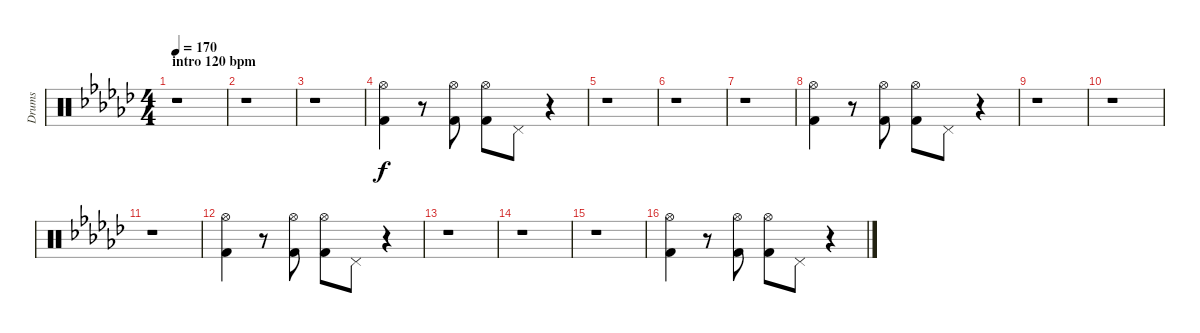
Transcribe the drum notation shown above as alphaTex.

\track ("Drums" "Drums") {instrument percussion}
\staff {score}
\articulation defaults
\ts (4 4)
\section ("" "intro 120 bpm")
\tempo 170
\tempo 120
\tempo 170
\clef neutral
\ks ebminor
r.1{dy f} |
r.1 |
r.1 |
("Hi-Hat (open)" "Kick (hit) 2").4 r.8 ("Hi-Hat (open)" "Kick (hit) 2").8 ("Hi-Hat (open)" "Kick (hit) 2").8 "Pedal Hi-Hat (hit)".8 r.4 |
r.1 |
r.1 |
r.1 |
("Hi-Hat (open)" "Kick (hit) 2").4 r.8 ("Hi-Hat (open)" "Kick (hit) 2").8 ("Hi-Hat (open)" "Kick (hit) 2").8 "Pedal Hi-Hat (hit)".8 r.4 |
r.1 |
r.1 |
r.1 |
("Hi-Hat (open)" "Kick (hit) 2").4 r.8 ("Hi-Hat (open)" "Kick (hit) 2").8 ("Hi-Hat (open)" "Kick (hit) 2").8 "Pedal Hi-Hat (hit)".8 r.4 |
r.1 |
r.1 |
r.1 |
("Hi-Hat (open)" "Kick (hit) 2").4 r.8 ("Hi-Hat (open)" "Kick (hit) 2").8 ("Hi-Hat (open)" "Kick (hit) 2").8 "Pedal Hi-Hat (hit)".8 r.4
